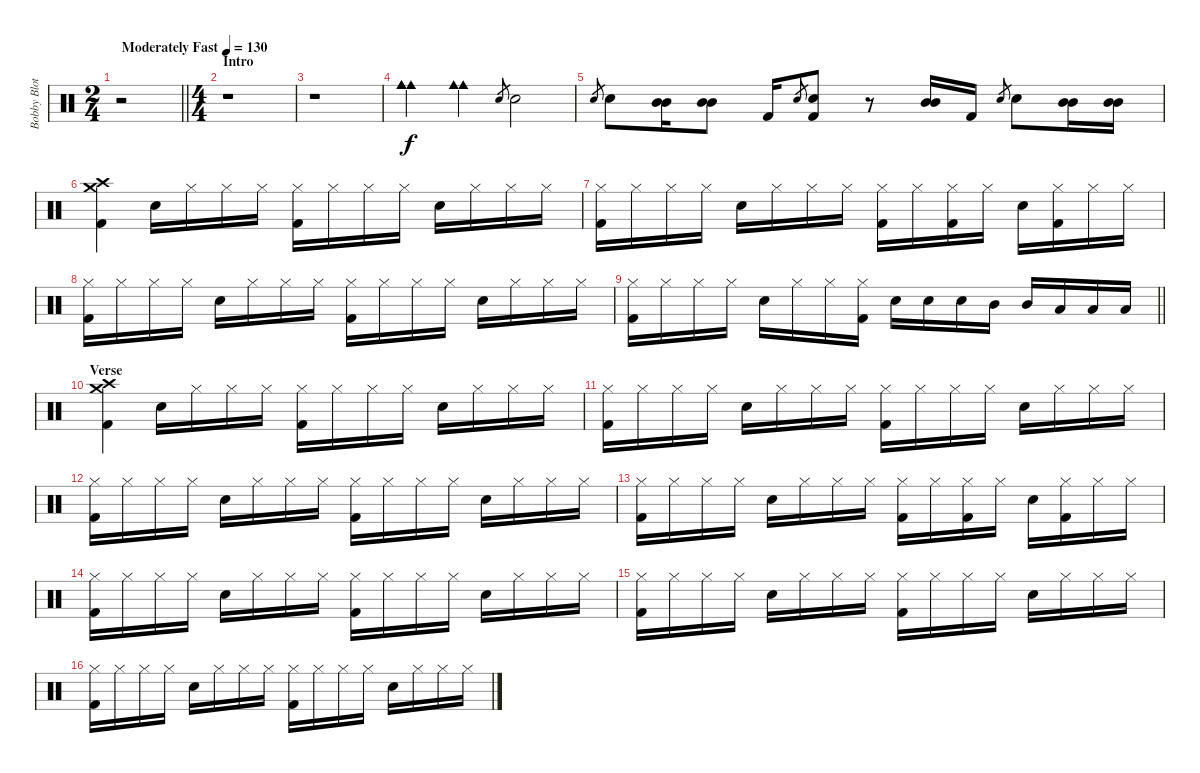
\track ("Bobby Blotzer - Drums" "Bobby Blot") {instrument percussion}
\staff {score}
\articulation defaults
\ts (2 4)
\tempo (130 "Moderately Fast")
\clef neutral
\barLineRight lightlight
\ks c
r.2{dy f} |
\ts (4 4)
\section ("" "Intro")
r.1 |
r.1 |
("Cowbell medium (hit)" "Cowbell medium (hit)" "Cowbell medium (hit)").4 ("Cowbell medium (hit)" "Cowbell medium (hit)").4 "Snare (hit) 2".8{gr} "Snare (hit) 2".2 |
"Snare (hit) 2".8{gr} "Snare (hit) 2".8 ("Mid Tom (hit)" "Mid Tom (hit)").16 ("Mid Tom (hit)" "Mid Tom (hit)").8 "Kick (hit) 2".16 "Snare (hit) 2".8{gr} ("Snare (hit) 2" "Kick (hit) 2").8 r.8 ("Mid Tom (hit)" "Mid Tom (hit)").16 "Kick (hit) 2".16 "Snare (hit) 2".8{gr} "Snare (hit) 2".8 ("Mid Tom (hit)" "Mid Tom (hit)").16 ("Mid Tom (hit)" "Mid Tom (hit)").16 |
("Crash medium (hit)" "Crash high (hit)" "Kick (hit) 2").4 "Snare (hit) 2".16 "Hi-Hat (closed)".16 "Hi-Hat (closed)".16 "Hi-Hat (closed)".16 ("Hi-Hat (closed)" "Kick (hit) 2").16 "Hi-Hat (closed)".16 "Hi-Hat (closed)".16 "Hi-Hat (closed)".16 "Snare (hit) 2".16 "Hi-Hat (closed)".16 "Hi-Hat (closed)".16 "Hi-Hat (closed)".16 |
("Hi-Hat (closed)" "Kick (hit) 2").16 "Hi-Hat (closed)".16 "Hi-Hat (closed)".16 "Hi-Hat (closed)".16 "Snare (hit) 2".16 "Hi-Hat (closed)".16 "Hi-Hat (closed)".16 "Hi-Hat (closed)".16 ("Hi-Hat (closed)" "Kick (hit) 2").16 "Hi-Hat (closed)".16 ("Hi-Hat (closed)" "Kick (hit) 2").16 "Hi-Hat (closed)".16 "Snare (hit) 2".16 ("Hi-Hat (closed)" "Kick (hit) 2").16 "Hi-Hat (closed)".16 "Hi-Hat (closed)".16 |
("Hi-Hat (closed)" "Kick (hit) 2").16 "Hi-Hat (closed)".16 "Hi-Hat (closed)".16 "Hi-Hat (closed)".16 "Snare (hit) 2".16 "Hi-Hat (closed)".16 "Hi-Hat (closed)".16 "Hi-Hat (closed)".16 ("Hi-Hat (closed)" "Kick (hit) 2").16 "Hi-Hat (closed)".16 "Hi-Hat (closed)".16 "Hi-Hat (closed)".16 "Snare (hit) 2".16 "Hi-Hat (closed)".16 "Hi-Hat (closed)".16 "Hi-Hat (closed)".16 |
\barLineRight lightlight
("Hi-Hat (closed)" "Kick (hit) 2").16 "Hi-Hat (closed)".16 "Hi-Hat (closed)".16 "Hi-Hat (closed)".16 "Snare (hit) 2".16 "Hi-Hat (closed)".16 "Hi-Hat (closed)".16 ("Hi-Hat (closed)" "Kick (hit) 2").16 "Snare (hit) 2".16 "Snare (hit) 2".16 "Snare (hit) 2".16 "Mid Tom (hit)".16 "Mid Tom (hit)".16 "Low Tom (hit)".16 "Low Tom (hit)".16 "Low Tom (hit)".16 |
\section ("" "Verse")
("Crash medium (hit)" "Crash high (hit)" "Kick (hit) 2").4 "Snare (hit) 2".16 "Hi-Hat (closed)".16 "Hi-Hat (closed)".16 "Hi-Hat (closed)".16 ("Hi-Hat (closed)" "Kick (hit) 2").16 "Hi-Hat (closed)".16 "Hi-Hat (closed)".16 "Hi-Hat (closed)".16 "Snare (hit) 2".16 "Hi-Hat (closed)".16 "Hi-Hat (closed)".16 "Hi-Hat (closed)".16 |
("Hi-Hat (closed)" "Kick (hit) 2").16 "Hi-Hat (closed)".16 "Hi-Hat (closed)".16 "Hi-Hat (closed)".16 "Snare (hit) 2".16 "Hi-Hat (closed)".16 "Hi-Hat (closed)".16 "Hi-Hat (closed)".16 ("Hi-Hat (closed)" "Kick (hit) 2").16 "Hi-Hat (closed)".16 "Hi-Hat (closed)".16 "Hi-Hat (closed)".16 "Snare (hit) 2".16 "Hi-Hat (closed)".16 "Hi-Hat (closed)".16 "Hi-Hat (closed)".16 |
("Hi-Hat (closed)" "Kick (hit) 2").16 "Hi-Hat (closed)".16 "Hi-Hat (closed)".16 "Hi-Hat (closed)".16 "Snare (hit) 2".16 "Hi-Hat (closed)".16 "Hi-Hat (closed)".16 "Hi-Hat (closed)".16 ("Hi-Hat (closed)" "Kick (hit) 2").16 "Hi-Hat (closed)".16 "Hi-Hat (closed)".16 "Hi-Hat (closed)".16 "Snare (hit) 2".16 "Hi-Hat (closed)".16 "Hi-Hat (closed)".16 "Hi-Hat (closed)".16 |
("Hi-Hat (closed)" "Kick (hit) 2").16 "Hi-Hat (closed)".16 "Hi-Hat (closed)".16 "Hi-Hat (closed)".16 "Snare (hit) 2".16 "Hi-Hat (closed)".16 "Hi-Hat (closed)".16 "Hi-Hat (closed)".16 ("Hi-Hat (closed)" "Kick (hit) 2").16 "Hi-Hat (closed)".16 ("Hi-Hat (closed)" "Kick (hit) 2").16 "Hi-Hat (closed)".16 "Snare (hit) 2".16 ("Hi-Hat (closed)" "Kick (hit) 2").16 "Hi-Hat (closed)".16 "Hi-Hat (closed)".16 |
("Hi-Hat (closed)" "Kick (hit) 2").16 "Hi-Hat (closed)".16 "Hi-Hat (closed)".16 "Hi-Hat (closed)".16 "Snare (hit) 2".16 "Hi-Hat (closed)".16 "Hi-Hat (closed)".16 "Hi-Hat (closed)".16 ("Hi-Hat (closed)" "Kick (hit) 2").16 "Hi-Hat (closed)".16 "Hi-Hat (closed)".16 "Hi-Hat (closed)".16 "Snare (hit) 2".16 "Hi-Hat (closed)".16 "Hi-Hat (closed)".16 "Hi-Hat (closed)".16 |
("Hi-Hat (closed)" "Kick (hit) 2").16 "Hi-Hat (closed)".16 "Hi-Hat (closed)".16 "Hi-Hat (closed)".16 "Snare (hit) 2".16 "Hi-Hat (closed)".16 "Hi-Hat (closed)".16 "Hi-Hat (closed)".16 ("Hi-Hat (closed)" "Kick (hit) 2").16 "Hi-Hat (closed)".16 "Hi-Hat (closed)".16 "Hi-Hat (closed)".16 "Snare (hit) 2".16 "Hi-Hat (closed)".16 "Hi-Hat (closed)".16 "Hi-Hat (closed)".16 |
("Hi-Hat (closed)" "Kick (hit) 2").16 "Hi-Hat (closed)".16 "Hi-Hat (closed)".16 "Hi-Hat (closed)".16 "Snare (hit) 2".16 "Hi-Hat (closed)".16 "Hi-Hat (closed)".16 "Hi-Hat (closed)".16 ("Hi-Hat (closed)" "Kick (hit) 2").16 "Hi-Hat (closed)".16 "Hi-Hat (closed)".16 "Hi-Hat (closed)".16 "Snare (hit) 2".16 "Hi-Hat (closed)".16 "Hi-Hat (closed)".16 "Hi-Hat (closed)".16
